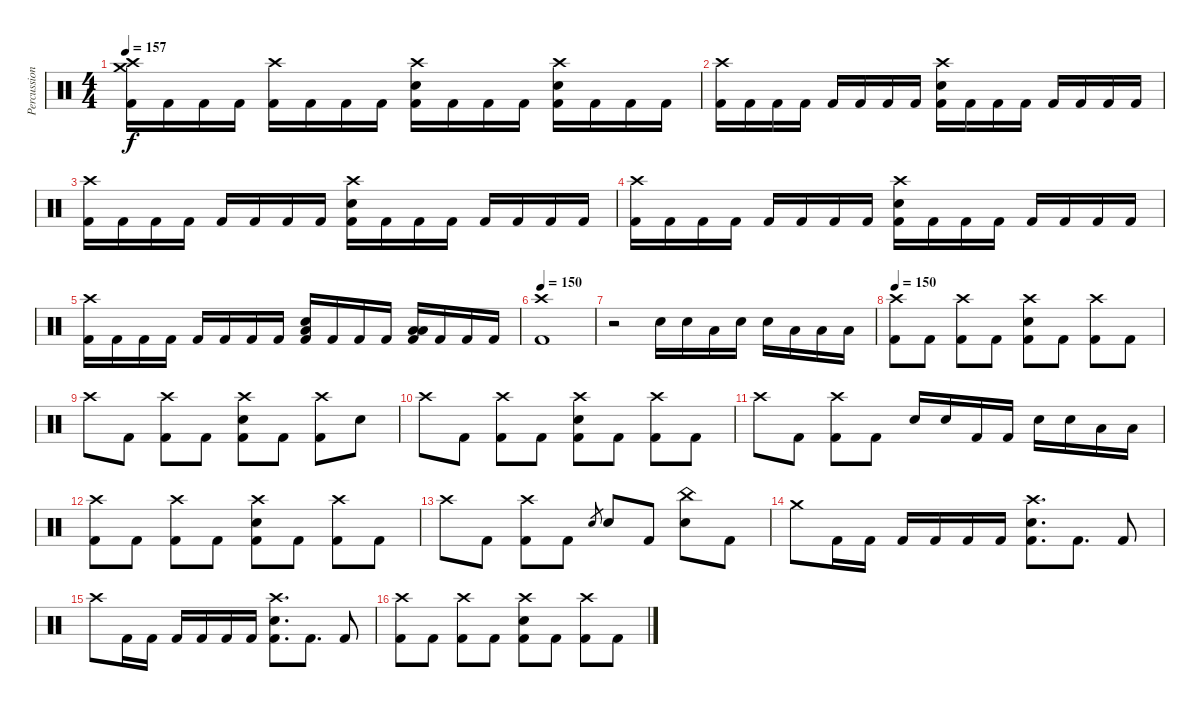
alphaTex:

\track ("Percussion" "Percussion") {instrument percussion}
\staff {score}
\articulation defaults
\ts (4 4)
\tempo 157
\clef neutral
\ks c
("Crash high (hit)" "Crash medium (hit)" "Kick (hit) 2").16{dy f} "Kick (hit) 2".16 "Kick (hit) 2".16 "Kick (hit) 2".16 ("Crash high (hit)" "Kick (hit) 2").16 "Kick (hit) 2".16 "Kick (hit) 2".16 "Kick (hit) 2".16 ("Crash high (hit)" "Electric Snare (hit)" "Kick (hit) 2").16 "Kick (hit) 2".16 "Kick (hit) 2".16 "Kick (hit) 2".16 ("Crash high (hit)" "Electric Snare (hit)" "Kick (hit) 2").16 "Kick (hit) 2".16 "Kick (hit) 2".16 "Kick (hit) 2".16 |
("Crash high (hit)" "Kick (hit) 2").16 "Kick (hit) 2".16 "Kick (hit) 2".16 "Kick (hit) 2".16 "Kick (hit) 2".16 "Kick (hit) 2".16 "Kick (hit) 2".16 "Kick (hit) 2".16 ("Crash high (hit)" "Electric Snare (hit)" "Kick (hit) 2").16 "Kick (hit) 2".16 "Kick (hit) 2".16 "Kick (hit) 2".16 "Kick (hit) 2".16 "Kick (hit) 2".16 "Kick (hit) 2".16 "Kick (hit) 2".16 |
("Crash high (hit)" "Kick (hit) 2").16 "Kick (hit) 2".16 "Kick (hit) 2".16 "Kick (hit) 2".16 "Kick (hit) 2".16 "Kick (hit) 2".16 "Kick (hit) 2".16 "Kick (hit) 2".16 ("Crash high (hit)" "Electric Snare (hit)" "Kick (hit) 2").16 "Kick (hit) 2".16 "Kick (hit) 2".16 "Kick (hit) 2".16 "Kick (hit) 2".16 "Kick (hit) 2".16 "Kick (hit) 2".16 "Kick (hit) 2".16 |
("Crash high (hit)" "Kick (hit) 2").16 "Kick (hit) 2".16 "Kick (hit) 2".16 "Kick (hit) 2".16 "Kick (hit) 2".16 "Kick (hit) 2".16 "Kick (hit) 2".16 "Kick (hit) 2".16 ("Crash high (hit)" "Electric Snare (hit)" "Kick (hit) 2").16 "Kick (hit) 2".16 "Kick (hit) 2".16 "Kick (hit) 2".16 "Kick (hit) 2".16 "Kick (hit) 2".16 "Kick (hit) 2".16 "Kick (hit) 2".16 |
("Crash high (hit)" "Kick (hit) 2").16 "Kick (hit) 2".16 "Kick (hit) 2".16 "Kick (hit) 2".16 "Kick (hit) 2".16 "Kick (hit) 2".16 "Kick (hit) 2".16 "Kick (hit) 2".16 ("Low Floor Tom (hit)" "Electric Snare (hit)" "Kick (hit) 2").16 "Kick (hit) 2".16 "Kick (hit) 2".16 "Kick (hit) 2".16 ("Low Tom (hit)" "Low Floor Tom (hit)" "Kick (hit) 2").16 "Kick (hit) 2".16 "Kick (hit) 2".16 "Kick (hit) 2".16 |
\tempo 150
("Crash high (hit)" "Kick (hit) 2").1 |
r.2 "Electric Snare (hit)".16 "Electric Snare (hit)".16 "Low Tom (hit)".16 "Electric Snare (hit)".16 "Electric Snare (hit)".16 "Low Tom (hit)".16 "Low Tom (hit)".16 "Low Tom (hit)".16 |
\tempo 150
("Crash high (hit)" "Kick (hit) 2").8 "Kick (hit) 2".8 ("Crash high (hit)" "Kick (hit) 2").8 "Kick (hit) 2".8 ("Crash high (hit)" "Electric Snare (hit)" "Kick (hit) 2").8 "Kick (hit) 2".8 ("Crash high (hit)" "Kick (hit) 2").8 "Kick (hit) 2".8 |
"Crash high (hit)".8 "Kick (hit) 2".8 ("Crash high (hit)" "Kick (hit) 2").8 "Kick (hit) 2".8 ("Crash high (hit)" "Electric Snare (hit)" "Kick (hit) 2").8 "Kick (hit) 2".8 ("Crash high (hit)" "Kick (hit) 2").8 "Electric Snare (hit)".8 |
"Crash high (hit)".8 "Kick (hit) 2".8 ("Crash high (hit)" "Kick (hit) 2").8 "Kick (hit) 2".8 ("Crash high (hit)" "Electric Snare (hit)" "Kick (hit) 2").8 "Kick (hit) 2".8 ("Crash high (hit)" "Kick (hit) 2").8 "Kick (hit) 2".8 |
"Crash high (hit)".8 "Kick (hit) 2".8 ("Crash high (hit)" "Kick (hit) 2").8 "Kick (hit) 2".8 "Electric Snare (hit)".16 "Electric Snare (hit)".16 "Kick (hit) 2".16 "Kick (hit) 2".16 "Electric Snare (hit)".16 "Electric Snare (hit)".16 "Low Tom (hit)".16 "Low Tom (hit)".16 |
("Crash high (hit)" "Kick (hit) 2").8 "Kick (hit) 2".8 ("Crash high (hit)" "Kick (hit) 2").8 "Kick (hit) 2".8 ("Crash high (hit)" "Electric Snare (hit)" "Kick (hit) 2").8 "Kick (hit) 2".8 ("Crash high (hit)" "Kick (hit) 2").8 "Kick (hit) 2".8 |
"Crash high (hit)".8 "Kick (hit) 2".8 ("Crash high (hit)" "Kick (hit) 2").8 "Kick (hit) 2".8 "Electric Snare (hit)".8{gr} "Electric Snare (hit)".8 "Kick (hit) 2".8 ("China (hit)" "Electric Snare (hit)").8 "Kick (hit) 2".8 |
"Crash medium (hit)".8 "Kick (hit) 2".16 "Kick (hit) 2".16 "Kick (hit) 2".16 "Kick (hit) 2".16 "Kick (hit) 2".16 "Kick (hit) 2".16 ("Crash high (hit)" "Electric Snare (hit)" "Kick (hit) 2").8{d} "Kick (hit) 2".8{d} "Kick (hit) 2".8 |
"Crash high (hit)".8 "Kick (hit) 2".16 "Kick (hit) 2".16 "Kick (hit) 2".16 "Kick (hit) 2".16 "Kick (hit) 2".16 "Kick (hit) 2".16 ("Crash high (hit)" "Electric Snare (hit)" "Kick (hit) 2").8{d} "Kick (hit) 2".8{d} "Kick (hit) 2".8 |
("Crash high (hit)" "Kick (hit) 2").8 "Kick (hit) 2".8 ("Crash high (hit)" "Kick (hit) 2").8 "Kick (hit) 2".8 ("Crash high (hit)" "Electric Snare (hit)" "Kick (hit) 2").8 "Kick (hit) 2".8 ("Crash high (hit)" "Kick (hit) 2").8 "Kick (hit) 2".8
